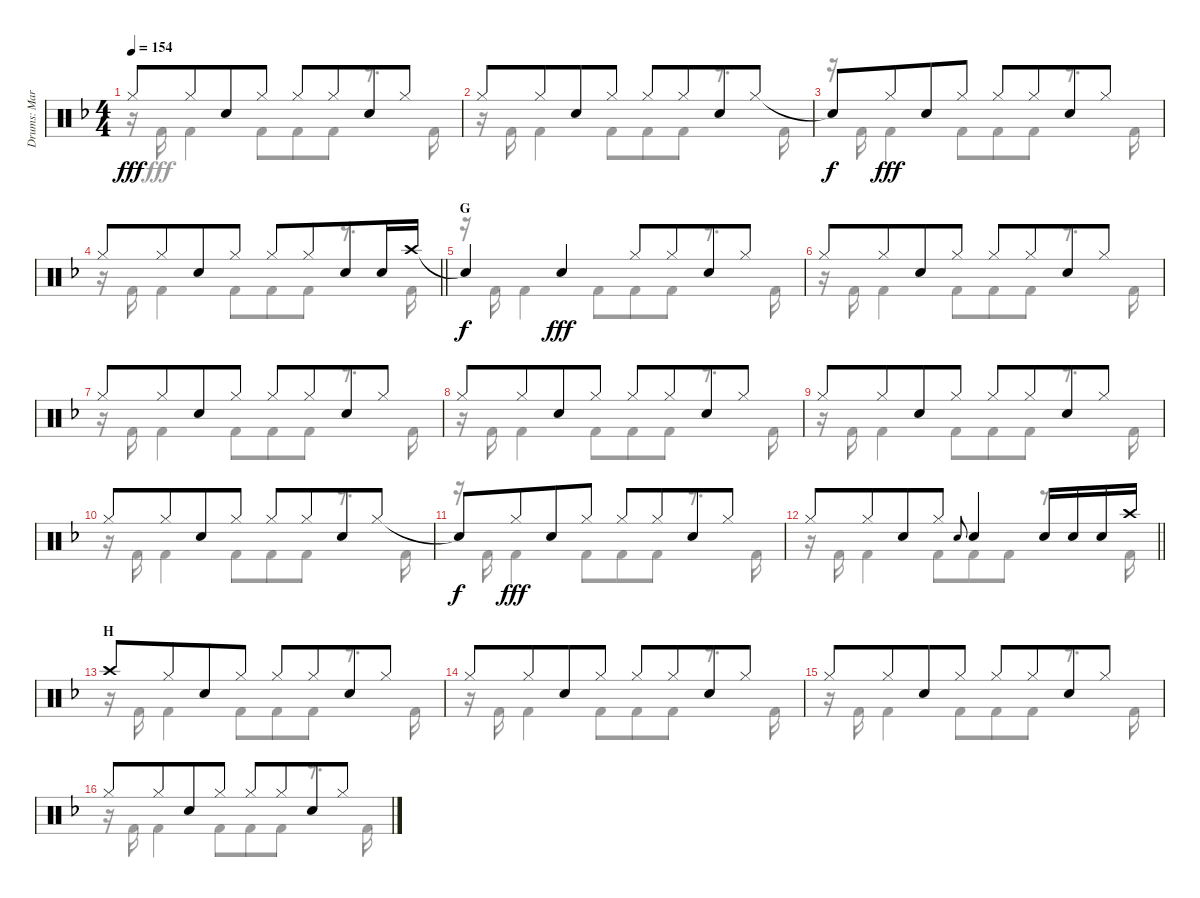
\track ("Drums: Mark" "Drums: Mar") {instrument percussion}
\staff {score}
\articulation defaults
\voice
\ts (4 4)
\tempo 154
\clef neutral
\ks f "Hi-Hat (closed)".8{dy fff} "Hi-Hat (closed)".8{beam merge} "Snare (hit) 2".8 "Hi-Hat (closed)".8 "Hi-Hat (closed)".8 "Hi-Hat (closed)".8{beam merge} "Snare (hit) 2".8 "Hi-Hat (closed)".8
|
"Hi-Hat (closed)".8 "Hi-Hat (closed)".8{beam merge} "Snare (hit) 2".8 "Hi-Hat (closed)".8 "Hi-Hat (closed)".8 "Hi-Hat (closed)".8{beam merge} "Snare (hit) 2".8 "Hi-Hat (closed)".8 |
"Snare (hit)"{t}.8{dy f} "Hi-Hat (closed)".8{dy fff beam merge} "Snare (hit) 2".8 "Hi-Hat (closed)".8 "Hi-Hat (closed)".8 "Hi-Hat (closed)".8{beam merge} "Snare (hit) 2".8 "Hi-Hat (closed)".8 |
\barLineRight lightlight "Hi-Hat (closed)".8 "Hi-Hat (closed)".8{beam merge} "Snare (hit) 2".8 "Hi-Hat (closed)".8 "Hi-Hat (closed)".8 "Hi-Hat (closed)".8{beam merge} "Snare (hit) 2".8 "Snare (hit) 2".16 "Crash high (hit)".16
|
\section ("" "G")
"Snare (hit)"{t}.4{dy f beam merge} "Snare (hit) 2".4{dy fff} "Hi-Hat (closed)".8 "Hi-Hat (closed)".8{beam merge} "Snare (hit) 2".8 "Hi-Hat (closed)".8 |
"Hi-Hat (closed)".8 "Hi-Hat (closed)".8{beam merge} "Snare (hit) 2".8 "Hi-Hat (closed)".8 "Hi-Hat (closed)".8 "Hi-Hat (closed)".8{beam merge} "Snare (hit) 2".8 "Hi-Hat (closed)".8 |
"Hi-Hat (closed)".8 "Hi-Hat (closed)".8{beam merge} "Snare (hit) 2".8 "Hi-Hat (closed)".8 "Hi-Hat (closed)".8 "Hi-Hat (closed)".8{beam merge} "Snare (hit) 2".8 "Hi-Hat (closed)".8 |
"Hi-Hat (closed)".8 "Hi-Hat (closed)".8{beam merge} "Snare (hit) 2".8 "Hi-Hat (closed)".8 "Hi-Hat (closed)".8 "Hi-Hat (closed)".8{beam merge} "Snare (hit) 2".8 "Hi-Hat (closed)".8 |
"Hi-Hat (closed)".8 "Hi-Hat (closed)".8{beam merge} "Snare (hit) 2".8 "Hi-Hat (closed)".8 "Hi-Hat (closed)".8 "Hi-Hat (closed)".8{beam merge} "Snare (hit) 2".8 "Hi-Hat (closed)".8 |
"Hi-Hat (closed)".8 "Hi-Hat (closed)".8{beam merge} "Snare (hit) 2".8 "Hi-Hat (closed)".8 "Hi-Hat (closed)".8 "Hi-Hat (closed)".8{beam merge} "Snare (hit) 2".8 "Hi-Hat (closed)".8 |
"Snare (hit)"{t}.8{dy f} "Hi-Hat (closed)".8{dy fff beam merge} "Snare (hit) 2".8 "Hi-Hat (closed)".8 "Hi-Hat (closed)".8 "Hi-Hat (closed)".8{beam merge} "Snare (hit) 2".8 "Hi-Hat (closed)".8 |
\barLineRight lightlight "Hi-Hat (closed)".8 "Hi-Hat (closed)".8{beam merge} "Snare (hit) 2".8 "Hi-Hat (closed)".8 "Electric Snare (hit)".8{gr onbeat} "Snare (hit) 2".4{beam merge} "Snare (hit) 2".16 "Snare (hit) 2".16 "Snare (hit) 2".16 "Crash high (hit)".16
|
\section ("" "H")
"Crash high (hit)".8 "Hi-Hat (closed)".8{beam merge} "Snare (hit) 2".8 "Hi-Hat (closed)".8 "Hi-Hat (closed)".8 "Hi-Hat (closed)".8{beam merge} "Snare (hit) 2".8 "Hi-Hat (closed)".8 |
"Hi-Hat (closed)".8 "Hi-Hat (closed)".8{beam merge} "Snare (hit) 2".8 "Hi-Hat (closed)".8 "Hi-Hat (closed)".8 "Hi-Hat (closed)".8{beam merge} "Snare (hit) 2".8 "Hi-Hat (closed)".8 |
"Hi-Hat (closed)".8 "Hi-Hat (closed)".8{beam merge} "Snare (hit) 2".8 "Hi-Hat (closed)".8 "Hi-Hat (closed)".8 "Hi-Hat (closed)".8{beam merge} "Snare (hit) 2".8 "Hi-Hat (closed)".8 |
"Hi-Hat (closed)".8 "Hi-Hat (closed)".8{beam merge} "Snare (hit) 2".8 "Hi-Hat (closed)".8 "Hi-Hat (closed)".8 "Hi-Hat (closed)".8{beam merge} "Snare (hit) 2".8 "Hi-Hat (closed)".8
\voice
\clef neutral
\ottava regular
\simile none
\ks f
r.16{dy fff} "Kick (hit) 2".16 "Kick (hit) 2".4 "Kick (hit) 2".8{beam merge} "Kick (hit) 2".8 "Kick (hit) 2".8 r.8{d} "Kick (hit) 2".16 |
r.16 "Kick (hit) 2".16 "Kick (hit) 2".4 "Kick (hit) 2".8{beam merge} "Kick (hit) 2".8 "Kick (hit) 2".8 r.8{d} "Kick (hit) 2".16 |
r.16 "Kick (hit) 2".16 "Kick (hit) 2".4 "Kick (hit) 2".8{beam merge} "Kick (hit) 2".8 "Kick (hit) 2".8 r.8{d} "Kick (hit) 2".16 |
\barLineRight lightlight
r.16 "Kick (hit) 2".16 "Kick (hit) 2".4 "Kick (hit) 2".8{beam merge} "Kick (hit) 2".8 "Kick (hit) 2".8 r.8{d} "Kick (hit) 2".16 |
r.16 "Kick (hit) 2".16 "Kick (hit) 2".4 "Kick (hit) 2".8{beam merge} "Kick (hit) 2".8 "Kick (hit) 2".8 r.8{d} "Kick (hit) 2".16 |
r.16 "Kick (hit) 2".16 "Kick (hit) 2".4 "Kick (hit) 2".8{beam merge} "Kick (hit) 2".8 "Kick (hit) 2".8 r.8{d} "Kick (hit) 2".16 |
r.16 "Kick (hit) 2".16 "Kick (hit) 2".4 "Kick (hit) 2".8{beam merge} "Kick (hit) 2".8 "Kick (hit) 2".8 r.8{d} "Kick (hit) 2".16 |
r.16 "Kick (hit) 2".16 "Kick (hit) 2".4 "Kick (hit) 2".8{beam merge} "Kick (hit) 2".8 "Kick (hit) 2".8 r.8{d} "Kick (hit) 2".16 |
r.16 "Kick (hit) 2".16 "Kick (hit) 2".4 "Kick (hit) 2".8{beam merge} "Kick (hit) 2".8 "Kick (hit) 2".8 r.8{d} "Kick (hit) 2".16 |
r.16 "Kick (hit) 2".16 "Kick (hit) 2".4 "Kick (hit) 2".8{beam merge} "Kick (hit) 2".8 "Kick (hit) 2".8 r.8{d} "Kick (hit) 2".16 |
r.16 "Kick (hit) 2".16 "Kick (hit) 2".4 "Kick (hit) 2".8{beam merge} "Kick (hit) 2".8 "Kick (hit) 2".8 r.8{d} "Kick (hit) 2".16 |
\barLineRight lightlight
r.16 "Kick (hit) 2".16 "Kick (hit) 2".4 "Kick (hit) 2".8{beam merge} "Kick (hit) 2".8 "Kick (hit) 2".8 r.8{d} "Kick (hit) 2".16 |
r.16 "Kick (hit) 2".16 "Kick (hit) 2".4 "Kick (hit) 2".8{beam merge} "Kick (hit) 2".8 "Kick (hit) 2".8 r.8{d} "Kick (hit) 2".16 |
r.16 "Kick (hit) 2".16 "Kick (hit) 2".4 "Kick (hit) 2".8{beam merge} "Kick (hit) 2".8 "Kick (hit) 2".8 r.8{d} "Kick (hit) 2".16 |
r.16 "Kick (hit) 2".16 "Kick (hit) 2".4 "Kick (hit) 2".8{beam merge} "Kick (hit) 2".8 "Kick (hit) 2".8 r.8{d} "Kick (hit) 2".16 |
r.16 "Kick (hit) 2".16 "Kick (hit) 2".4 "Kick (hit) 2".8{beam merge} "Kick (hit) 2".8 "Kick (hit) 2".8 r.8{d} "Kick (hit) 2".16
